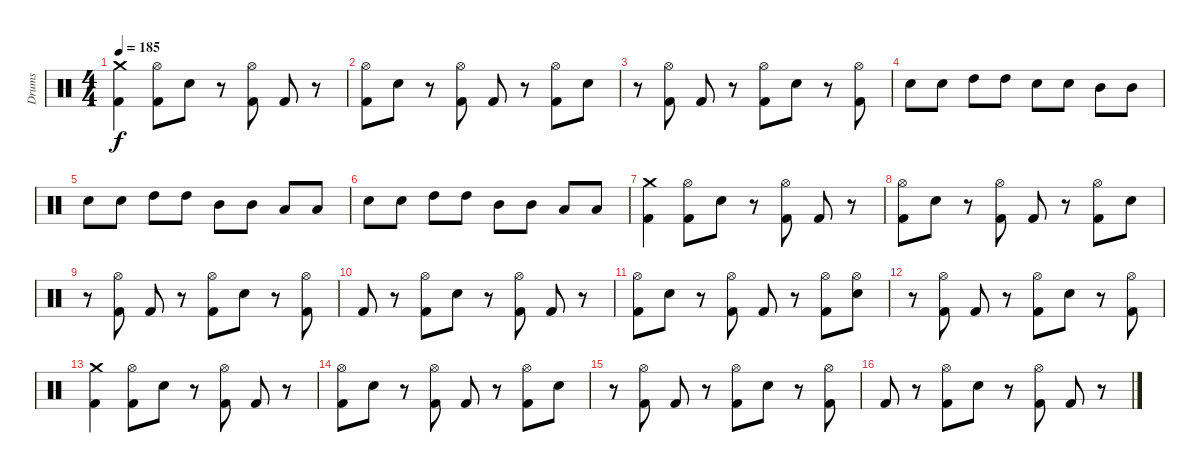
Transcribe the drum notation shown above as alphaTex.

\track ("Drums" "Drums") {instrument percussion}
\staff {score}
\articulation defaults
\ts (4 4)
\tempo 185
\clef neutral
\ks c
("Crash medium (hit)" "Kick (hit) 2").4{dy f} ("Hi-Hat (open)" "Kick (hit) 2").8 "Electric Snare (hit)".8 r.8 ("Hi-Hat (open)" "Kick (hit) 2").8 "Kick (hit) 2".8 r.8 |
("Hi-Hat (open)" "Kick (hit) 2").8 "Electric Snare (hit)".8 r.8 ("Hi-Hat (open)" "Kick (hit) 2").8 "Kick (hit) 2".8 r.8 ("Hi-Hat (open)" "Kick (hit) 2").8 "Electric Snare (hit)".8 |
r.8 ("Hi-Hat (open)" "Kick (hit) 2").8 "Kick (hit) 2".8 r.8 ("Hi-Hat (open)" "Kick (hit) 2").8 "Electric Snare (hit)".8 r.8 ("Hi-Hat (open)" "Kick (hit) 2").8 |
"Electric Snare (hit)".8 "Electric Snare (hit)".8 "High Tom (hit)".8 "High Tom (hit)".8 "Electric Snare (hit)".8 "Electric Snare (hit)".8 "Mid Tom (hit)".8 "Mid Tom (hit)".8 |
"Electric Snare (hit)".8 "Electric Snare (hit)".8 "High Tom (hit)".8 "High Tom (hit)".8 "Mid Tom (hit)".8 "Mid Tom (hit)".8 "Low Tom (hit)".8 "Low Tom (hit)".8 |
"Electric Snare (hit)".8 "Electric Snare (hit)".8 "High Tom (hit)".8 "High Tom (hit)".8 "Mid Tom (hit)".8 "Mid Tom (hit)".8 "Low Tom (hit)".8 "Low Tom (hit)".8 |
("Crash medium (hit)" "Kick (hit) 2").4 ("Hi-Hat (open)" "Kick (hit) 2").8 "Electric Snare (hit)".8 r.8 ("Hi-Hat (open)" "Kick (hit) 2").8 "Kick (hit) 2".8 r.8 |
("Hi-Hat (open)" "Kick (hit) 2").8 "Electric Snare (hit)".8 r.8 ("Hi-Hat (open)" "Kick (hit) 2").8 "Kick (hit) 2".8 r.8 ("Hi-Hat (open)" "Kick (hit) 2").8 "Electric Snare (hit)".8 |
r.8 ("Hi-Hat (open)" "Kick (hit) 2").8 "Kick (hit) 2".8 r.8 ("Hi-Hat (open)" "Kick (hit) 2").8 "Electric Snare (hit)".8 r.8 ("Hi-Hat (open)" "Kick (hit) 2").8 |
"Kick (hit) 2".8 r.8 ("Hi-Hat (open)" "Kick (hit) 2").8 "Electric Snare (hit)".8 r.8 ("Hi-Hat (open)" "Kick (hit) 2").8 "Kick (hit) 2".8 r.8 |
("Hi-Hat (open)" "Kick (hit) 2").8 "Electric Snare (hit)".8 r.8 ("Hi-Hat (open)" "Kick (hit) 2").8 "Kick (hit) 2".8 r.8 ("Hi-Hat (open)" "Kick (hit) 2").8 ("Hi-Hat (open)" "Electric Snare (hit)").8 |
r.8 ("Hi-Hat (open)" "Kick (hit) 2").8 "Kick (hit) 2".8 r.8 ("Hi-Hat (open)" "Kick (hit) 2").8 "Electric Snare (hit)".8 r.8 ("Hi-Hat (open)" "Kick (hit) 2").8 |
("Crash medium (hit)" "Kick (hit) 2").4 ("Hi-Hat (open)" "Kick (hit) 2").8 "Electric Snare (hit)".8 r.8 ("Hi-Hat (open)" "Kick (hit) 2").8 "Kick (hit) 2".8 r.8 |
("Hi-Hat (open)" "Kick (hit) 2").8 "Electric Snare (hit)".8 r.8 ("Hi-Hat (open)" "Kick (hit) 2").8 "Kick (hit) 2".8 r.8 ("Hi-Hat (open)" "Kick (hit) 2").8 "Electric Snare (hit)".8 |
r.8 ("Hi-Hat (open)" "Kick (hit) 2").8 "Kick (hit) 2".8 r.8 ("Hi-Hat (open)" "Kick (hit) 2").8 "Electric Snare (hit)".8 r.8 ("Hi-Hat (open)" "Kick (hit) 2").8 |
"Kick (hit) 2".8 r.8 ("Hi-Hat (open)" "Kick (hit) 2").8 "Electric Snare (hit)".8 r.8 ("Hi-Hat (open)" "Kick (hit) 2").8 "Kick (hit) 2".8 r.8
